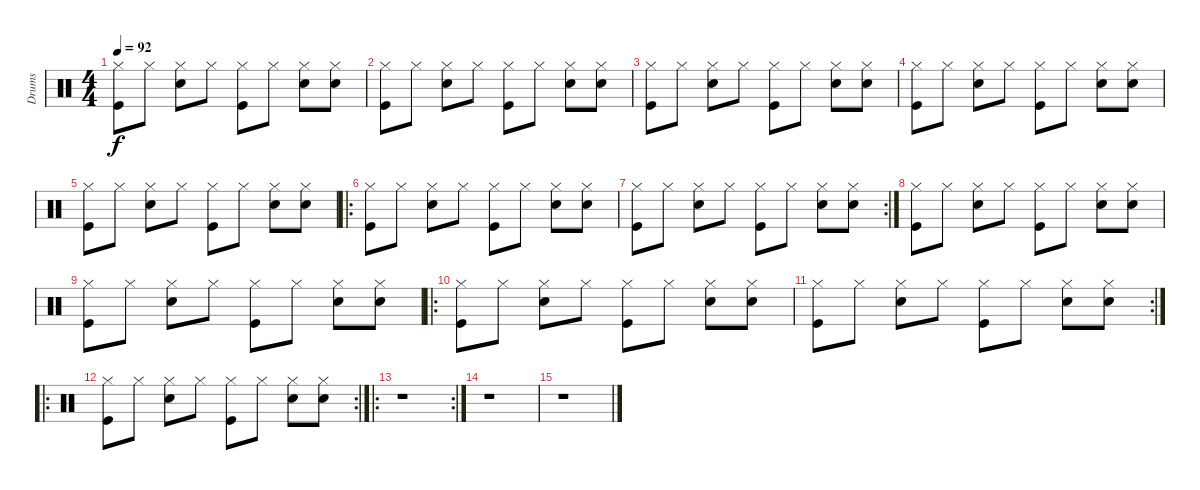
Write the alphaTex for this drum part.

\track ("Drums" "Drums") {instrument percussion}
\staff {score}
\articulation defaults
\ts (4 4)
\tempo 92
\clef neutral
\ks c
("Hi-Hat (closed)" "Kick (hit)").8{dy f} "Hi-Hat (closed)".8 ("Hi-Hat (closed)" "Snare (hit) 2").8 "Hi-Hat (closed)".8 ("Hi-Hat (closed)" "Kick (hit)").8 "Hi-Hat (closed)".8 ("Hi-Hat (closed)" "Snare (hit) 2").8 ("Hi-Hat (closed)" "Snare (hit) 2").8 |
("Hi-Hat (closed)" "Kick (hit)").8 "Hi-Hat (closed)".8 ("Hi-Hat (closed)" "Snare (hit) 2").8 "Hi-Hat (closed)".8 ("Hi-Hat (closed)" "Kick (hit)").8 "Hi-Hat (closed)".8 ("Hi-Hat (closed)" "Snare (hit) 2").8 ("Hi-Hat (closed)" "Snare (hit) 2").8 |
("Hi-Hat (closed)" "Kick (hit)").8 "Hi-Hat (closed)".8 ("Hi-Hat (closed)" "Snare (hit) 2").8 "Hi-Hat (closed)".8 ("Hi-Hat (closed)" "Kick (hit)").8 "Hi-Hat (closed)".8 ("Hi-Hat (closed)" "Snare (hit) 2").8 ("Hi-Hat (closed)" "Snare (hit) 2").8 |
("Hi-Hat (closed)" "Kick (hit)").8 "Hi-Hat (closed)".8 ("Hi-Hat (closed)" "Snare (hit) 2").8 "Hi-Hat (closed)".8 ("Hi-Hat (closed)" "Kick (hit)").8 "Hi-Hat (closed)".8 ("Hi-Hat (closed)" "Snare (hit) 2").8 ("Hi-Hat (closed)" "Snare (hit) 2").8 |
("Hi-Hat (closed)" "Kick (hit)").8 "Hi-Hat (closed)".8 ("Hi-Hat (closed)" "Snare (hit) 2").8 "Hi-Hat (closed)".8 ("Hi-Hat (closed)" "Kick (hit)").8 "Hi-Hat (closed)".8 ("Hi-Hat (closed)" "Snare (hit) 2").8 ("Hi-Hat (closed)" "Snare (hit) 2").8 |
\ro
("Hi-Hat (closed)" "Kick (hit)").8 "Hi-Hat (closed)".8 ("Hi-Hat (closed)" "Snare (hit) 2").8 "Hi-Hat (closed)".8 ("Hi-Hat (closed)" "Kick (hit)").8 "Hi-Hat (closed)".8 ("Hi-Hat (closed)" "Snare (hit) 2").8 ("Hi-Hat (closed)" "Snare (hit) 2").8 |
\rc 2
("Hi-Hat (closed)" "Kick (hit)").8 "Hi-Hat (closed)".8 ("Hi-Hat (closed)" "Snare (hit) 2").8 "Hi-Hat (closed)".8 ("Hi-Hat (closed)" "Kick (hit)").8 "Hi-Hat (closed)".8 ("Hi-Hat (closed)" "Snare (hit) 2").8 ("Hi-Hat (closed)" "Snare (hit) 2").8 |
("Hi-Hat (closed)" "Kick (hit)").8 "Hi-Hat (closed)".8 ("Hi-Hat (closed)" "Snare (hit) 2").8 "Hi-Hat (closed)".8 ("Hi-Hat (closed)" "Kick (hit)").8 "Hi-Hat (closed)".8 ("Hi-Hat (closed)" "Snare (hit) 2").8 ("Hi-Hat (closed)" "Snare (hit) 2").8 |
("Hi-Hat (closed)" "Kick (hit)").8 "Hi-Hat (closed)".8 ("Hi-Hat (closed)" "Snare (hit) 2").8 "Hi-Hat (closed)".8 ("Hi-Hat (closed)" "Kick (hit)").8 "Hi-Hat (closed)".8 ("Hi-Hat (closed)" "Snare (hit) 2").8 ("Hi-Hat (closed)" "Snare (hit) 2").8 |
\ro
("Hi-Hat (closed)" "Kick (hit)").8 "Hi-Hat (closed)".8 ("Hi-Hat (closed)" "Snare (hit) 2").8 "Hi-Hat (closed)".8 ("Hi-Hat (closed)" "Kick (hit)").8 "Hi-Hat (closed)".8 ("Hi-Hat (closed)" "Snare (hit) 2").8 ("Hi-Hat (closed)" "Snare (hit) 2").8 |
\rc 2
("Hi-Hat (closed)" "Kick (hit)").8 "Hi-Hat (closed)".8 ("Hi-Hat (closed)" "Snare (hit) 2").8 "Hi-Hat (closed)".8 ("Hi-Hat (closed)" "Kick (hit)").8 "Hi-Hat (closed)".8 ("Hi-Hat (closed)" "Snare (hit) 2").8 ("Hi-Hat (closed)" "Snare (hit) 2").8 |
\ro
\rc 2
("Hi-Hat (closed)" "Kick (hit)").8 "Hi-Hat (closed)".8 ("Hi-Hat (closed)" "Snare (hit) 2").8 "Hi-Hat (closed)".8 ("Hi-Hat (closed)" "Kick (hit)").8 "Hi-Hat (closed)".8 ("Hi-Hat (closed)" "Snare (hit) 2").8 ("Hi-Hat (closed)" "Snare (hit) 2").8 |
\ro
\rc 2
r.1 |
r.1 |
r.1
